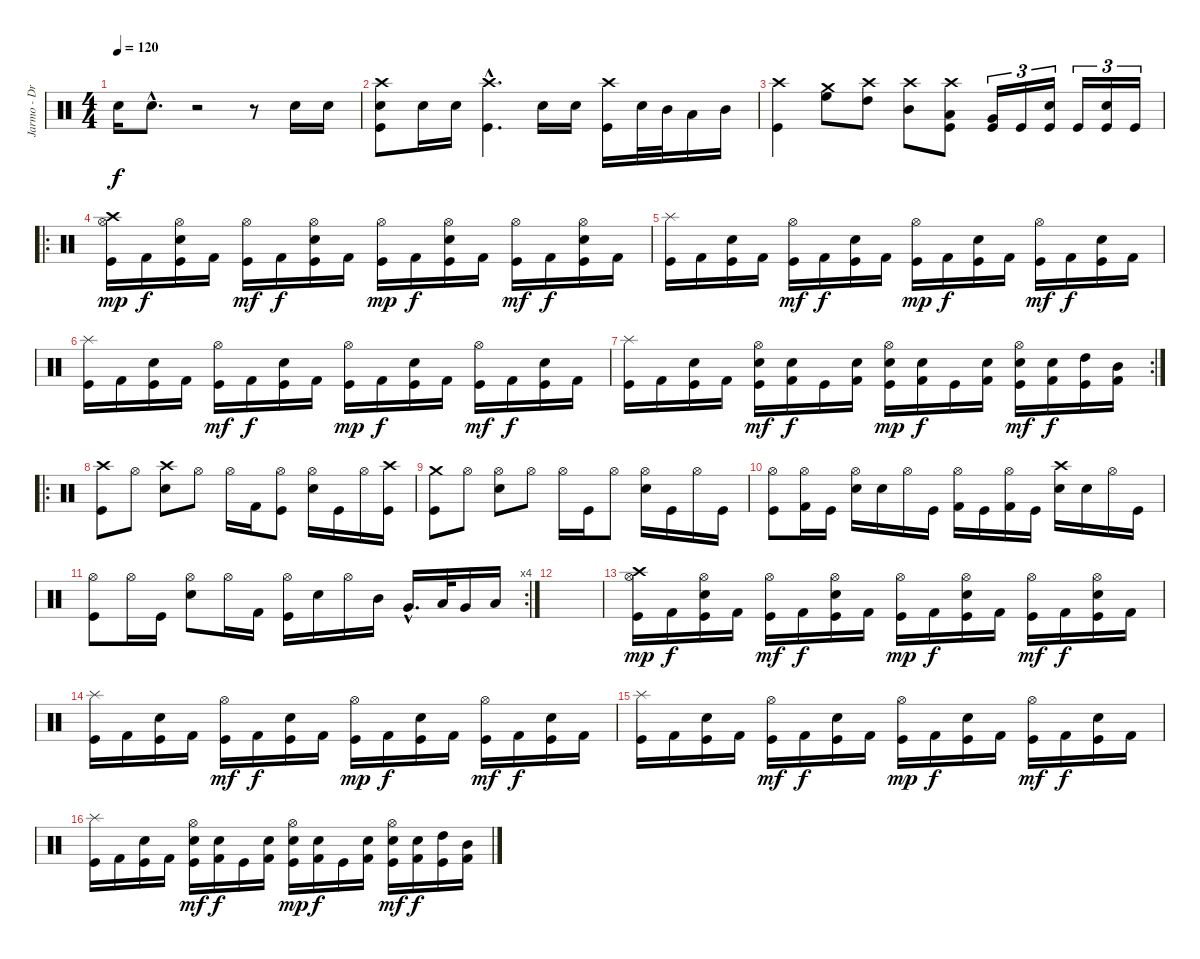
\track ("Jarmo - Drums" "Jarmo - Dr") {instrument percussion}
\staff {score}
\articulation defaults
\ts (4 4)
\tempo 120
\clef neutral
\ks c "Electric Snare (hit)".16{dy f} "Electric Snare (hit)"{hac}.8{d}
r.2 r.8 "Electric Snare (hit)".16 "Electric Snare (hit)".16 |
("Kick (hit)" "Electric Snare (hit)" "Crash high (hit)").8 "Electric Snare (hit)".16 "Electric Snare (hit)".16 ("Kick (hit)"{hac} "Crash high (hit)"{hac}).4{d} "Electric Snare (hit)".16 "Electric Snare (hit)".16 ("Kick (hit)" "Crash high (hit)").16 "Electric Snare (hit)".32 "Mid Tom (hit)".32 "Low Tom (hit)".16 "Mid Tom (hit)".16 |
("Kick (hit)" "Crash high (hit)").4 ("Crash medium (hit)" "High Floor Tom (hit)").8 ("Crash high (hit)" "High Tom (hit)").8 ("Crash high (hit)" "Mid Tom (hit)").8 ("Kick (hit)" "Crash high (hit)" "Low Tom (hit)").8 ("Kick (hit)" "Very Low Tom (hit)").16{tu (3 2)} "Kick (hit)".16{tu (3 2)} ("Kick (hit)" "Electric Snare (hit)").16{tu (3 2)} "Kick (hit)".16{tu (3 2)} ("Kick (hit)" "Electric Snare (hit)").16{tu (3 2)} "Kick (hit)".16{tu (3 2)} |
\ro
("Kick (hit)" "Hi-Hat (open)" "Crash high (hit)").16{dy mp} "Kick (hit) 2".16{dy f} ("Kick (hit)" "Electric Snare (hit)" "Hi-Hat (open)").16 "Kick (hit) 2".16 ("Kick (hit)" "Hi-Hat (open)").16{dy mf} "Kick (hit) 2".16{dy f} ("Kick (hit)" "Electric Snare (hit)" "Hi-Hat (open)").16 "Kick (hit) 2".16 ("Kick (hit)" "Hi-Hat (open)").16{dy mp} "Kick (hit) 2".16{dy f} ("Kick (hit)" "Electric Snare (hit)" "Hi-Hat (open)").16 "Kick (hit) 2".16 ("Kick (hit)" "Hi-Hat (open)").16{dy mf} "Kick (hit) 2".16{dy f} ("Kick (hit)" "Electric Snare (hit)" "Hi-Hat (open)").16 "Kick (hit) 2".16 |
("Kick (hit)" "Splash (hit)").16 "Kick (hit) 2".16 ("Kick (hit)" "Electric Snare (hit)").16 "Kick (hit) 2".16 ("Kick (hit)" "Hi-Hat (open)").16{dy mf} "Kick (hit) 2".16{dy f} ("Kick (hit)" "Electric Snare (hit)").16 "Kick (hit) 2".16 ("Kick (hit)" "Hi-Hat (open)").16{dy mp} "Kick (hit) 2".16{dy f} ("Kick (hit)" "Electric Snare (hit)").16 "Kick (hit) 2".16 ("Kick (hit)" "Hi-Hat (open)").16{dy mf} "Kick (hit) 2".16{dy f} ("Kick (hit)" "Electric Snare (hit)").16 "Kick (hit) 2".16 |
("Kick (hit)" "Splash (hit)").16 "Kick (hit) 2".16 ("Kick (hit)" "Electric Snare (hit)").16 "Kick (hit) 2".16 ("Kick (hit)" "Hi-Hat (open)").16{dy mf} "Kick (hit) 2".16{dy f} ("Kick (hit)" "Electric Snare (hit)").16 "Kick (hit) 2".16 ("Kick (hit)" "Hi-Hat (open)").16{dy mp} "Kick (hit) 2".16{dy f} ("Kick (hit)" "Electric Snare (hit)").16 "Kick (hit) 2".16 ("Kick (hit)" "Hi-Hat (open)").16{dy mf} "Kick (hit) 2".16{dy f} ("Kick (hit)" "Electric Snare (hit)").16 "Kick (hit) 2".16 |
\rc 2
("Kick (hit)" "Splash (hit)").16 "Kick (hit) 2".16 ("Kick (hit)" "Electric Snare (hit)").16 "Kick (hit) 2".16 ("Kick (hit)" "Electric Snare (hit)" "Hi-Hat (open)").16{dy mf} ("Kick (hit) 2" "Electric Snare (hit)").16{dy f} "Kick (hit)".16 ("Kick (hit) 2" "Electric Snare (hit)").16 ("Kick (hit)" "Electric Snare (hit)" "Hi-Hat (open)").16{dy mp} ("Kick (hit) 2" "Electric Snare (hit)").16{dy f} "Kick (hit)".16 ("Kick (hit) 2" "Electric Snare (hit)").16 ("Kick (hit)" "Electric Snare (hit)" "Hi-Hat (open)").16{dy mf} ("Kick (hit) 2" "Electric Snare (hit)").16{dy f} ("Kick (hit)" "High Tom (hit)").16 ("Kick (hit) 2" "Mid Tom (hit)").16 |
\ro
("Kick (hit)" "Crash high (hit)").8 "Hi-Hat (open)".8 ("Electric Snare (hit)" "Crash high (hit)").8 "Hi-Hat (open)".8 "Hi-Hat (open)".16 "Kick (hit) 2".16 ("Kick (hit)" "Hi-Hat (open)").8 ("Electric Snare (hit)" "Hi-Hat (open)").16 "Kick (hit)".16 "Hi-Hat (open)".16 ("Kick (hit)" "Crash high (hit)").16 |
("Kick (hit)" "Crash medium (hit)").8 "Hi-Hat (open)".8 ("Electric Snare (hit)" "Hi-Hat (open)").8 "Hi-Hat (open)".8 "Hi-Hat (open)".16 "Kick (hit)".16 "Hi-Hat (open)".8 ("Electric Snare (hit)" "Hi-Hat (open)").16 "Kick (hit)".16 "Hi-Hat (open)".16 "Kick (hit)".16 |
("Kick (hit)" "Hi-Hat (open)").8 ("Kick (hit) 2" "Hi-Hat (open)").16 "Kick (hit)".16 ("Electric Snare (hit)" "Hi-Hat (open)").16 "Electric Snare (hit)".16 "Hi-Hat (open)".16 "Kick (hit)".16 ("Kick (hit) 2" "Hi-Hat (open)").16 "Kick (hit)".16 ("Kick (hit) 2" "Hi-Hat (open)").16 "Kick (hit)".16 ("Electric Snare (hit)" "Crash high (hit)").16 "Electric Snare (hit)".16 "Hi-Hat (open)".16 "Kick (hit)".16 |
\rc 4
("Kick (hit)" "Hi-Hat (open)").8 "Hi-Hat (open)".16 "Kick (hit)".16 ("Electric Snare (hit)" "Hi-Hat (open)").8 "Hi-Hat (open)".16 "Kick (hit) 2".16 ("Kick (hit)" "Hi-Hat (open)").16 "Electric Snare (hit)".16 "Hi-Hat (open)".16 "Mid Tom (hit)".16 "Very Low Tom (hit)"{hac}.16{d} "Low Tom (hit)".32 "Very Low Tom (hit)".16 "Low Floor Tom (hit)".16 |
|
("Kick (hit)" "Hi-Hat (open)" "Crash high (hit)").16{dy mp} "Kick (hit) 2".16{dy f} ("Kick (hit)" "Electric Snare (hit)" "Hi-Hat (open)").16 "Kick (hit) 2".16 ("Kick (hit)" "Hi-Hat (open)").16{dy mf} "Kick (hit) 2".16{dy f} ("Kick (hit)" "Electric Snare (hit)" "Hi-Hat (open)").16 "Kick (hit) 2".16 ("Kick (hit)" "Hi-Hat (open)").16{dy mp} "Kick (hit) 2".16{dy f} ("Kick (hit)" "Electric Snare (hit)" "Hi-Hat (open)").16 "Kick (hit) 2".16 ("Kick (hit)" "Hi-Hat (open)").16{dy mf} "Kick (hit) 2".16{dy f} ("Kick (hit)" "Electric Snare (hit)" "Hi-Hat (open)").16 "Kick (hit) 2".16 |
("Kick (hit)" "Splash (hit)").16 "Kick (hit) 2".16 ("Kick (hit)" "Electric Snare (hit)").16 "Kick (hit) 2".16 ("Kick (hit)" "Hi-Hat (open)").16{dy mf} "Kick (hit) 2".16{dy f} ("Kick (hit)" "Electric Snare (hit)").16 "Kick (hit) 2".16 ("Kick (hit)" "Hi-Hat (open)").16{dy mp} "Kick (hit) 2".16{dy f} ("Kick (hit)" "Electric Snare (hit)").16 "Kick (hit) 2".16 ("Kick (hit)" "Hi-Hat (open)").16{dy mf} "Kick (hit) 2".16{dy f} ("Kick (hit)" "Electric Snare (hit)").16 "Kick (hit) 2".16 |
("Kick (hit)" "Splash (hit)").16 "Kick (hit) 2".16 ("Kick (hit)" "Electric Snare (hit)").16 "Kick (hit) 2".16 ("Kick (hit)" "Hi-Hat (open)").16{dy mf} "Kick (hit) 2".16{dy f} ("Kick (hit)" "Electric Snare (hit)").16 "Kick (hit) 2".16 ("Kick (hit)" "Hi-Hat (open)").16{dy mp} "Kick (hit) 2".16{dy f} ("Kick (hit)" "Electric Snare (hit)").16 "Kick (hit) 2".16 ("Kick (hit)" "Hi-Hat (open)").16{dy mf} "Kick (hit) 2".16{dy f} ("Kick (hit)" "Electric Snare (hit)").16 "Kick (hit) 2".16 |
("Kick (hit)" "Splash (hit)").16 "Kick (hit) 2".16 ("Kick (hit)" "Electric Snare (hit)").16 "Kick (hit) 2".16 ("Kick (hit)" "Electric Snare (hit)" "Hi-Hat (open)").16{dy mf} ("Kick (hit) 2" "Electric Snare (hit)").16{dy f} "Kick (hit)".16 ("Kick (hit) 2" "Electric Snare (hit)").16 ("Kick (hit)" "Electric Snare (hit)" "Hi-Hat (open)").16{dy mp} ("Kick (hit) 2" "Electric Snare (hit)").16{dy f} "Kick (hit)".16 ("Kick (hit) 2" "Electric Snare (hit)").16 ("Kick (hit)" "Electric Snare (hit)" "Hi-Hat (open)").16{dy mf} ("Kick (hit) 2" "Electric Snare (hit)").16{dy f} ("Kick (hit)" "High Tom (hit)").16 ("Kick (hit) 2" "Mid Tom (hit)").16
